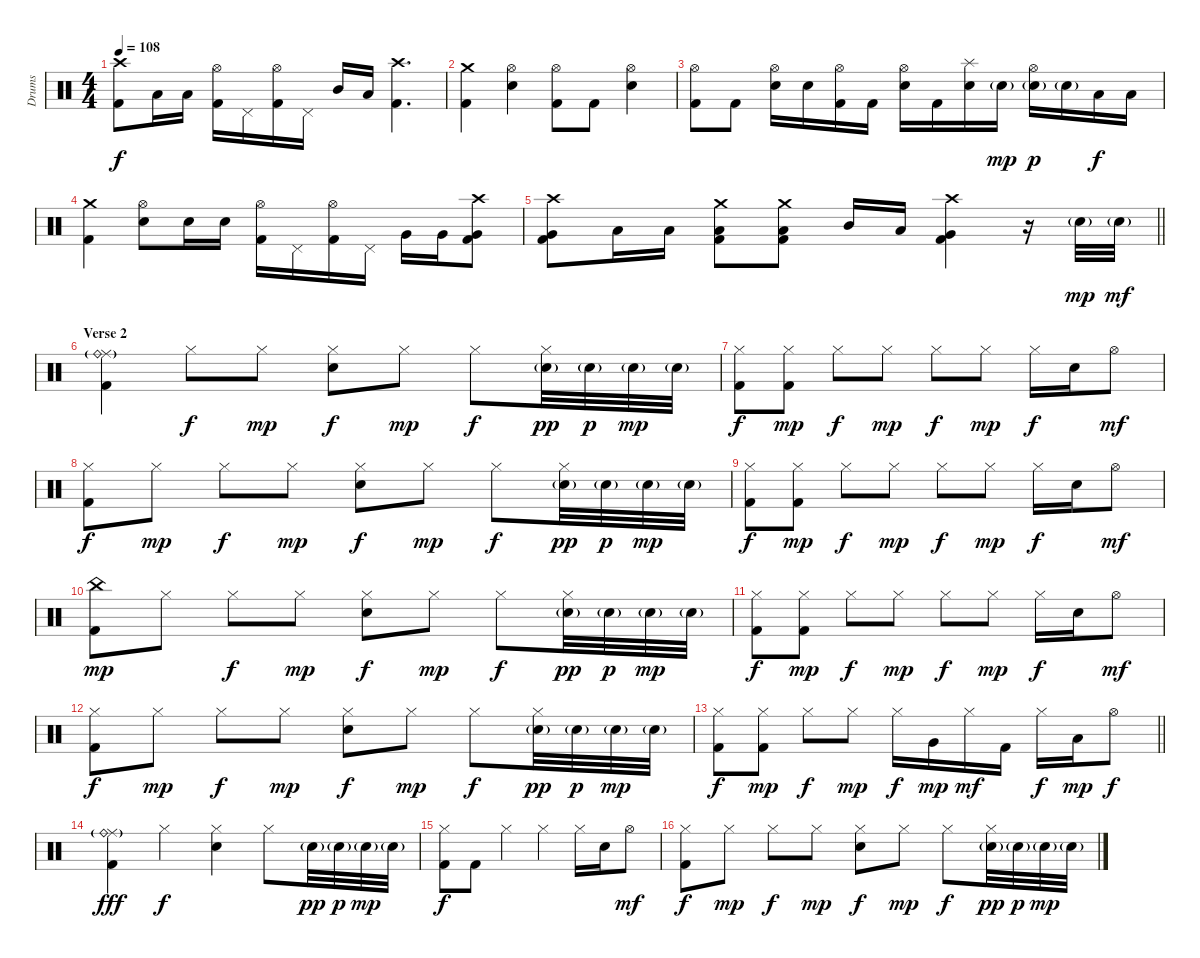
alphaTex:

\track ("Drums" "Drums") {instrument percussion}
\staff {score}
\articulation defaults
\ts (4 4)
\tempo 108
\clef neutral
\ks c
("Crash high (hit)" "Kick (hit) 2").8{dy f} "Low Tom (hit)".16 "Low Tom (hit)".16 ("Hi-Hat (open)" "Kick (hit) 2").16 "Pedal Hi-Hat (hit)".16 ("Hi-Hat (open)" "Kick (hit) 2").16 "Pedal Hi-Hat (hit)".16 "Mid Tom (hit)".16 "Low Tom (hit)".16 ("Crash high (hit)" "Kick (hit) 2").4{d} |
("Crash medium (hit)" "Kick (hit) 2").4 ("Hi-Hat (open)" "Electric Snare (hit)").4 ("Hi-Hat (open)" "Kick (hit) 2").8 "Kick (hit) 2".8 ("Hi-Hat (open)" "Electric Snare (hit)").4 |
("Hi-Hat (open)" "Kick (hit) 2").8 "Kick (hit) 2".8 ("Hi-Hat (open)" "Electric Snare (hit)").16 "Electric Snare (hit)".16 ("Hi-Hat (open)" "Kick (hit) 2").16 "Kick (hit) 2".16 ("Hi-Hat (open)" "Electric Snare (hit)").16 "Kick (hit) 2".16 ("Splash (hit)" "Electric Snare (hit)").16 "Electric Snare (hit)"{g}.16{dy mp} ("Hi-Hat (open)" "Electric Snare (hit)"{g}).16{dy p} "Electric Snare (hit)"{g}.16 "Low Tom (hit)".16{dy f} "Low Tom (hit)".16 |
("Crash medium (hit)" "Kick (hit) 2").4 ("Hi-Hat (open)" "Electric Snare (hit)").8 "Electric Snare (hit)".16 "Electric Snare (hit)".16 ("Hi-Hat (open)" "Kick (hit) 2").16 "Pedal Hi-Hat (hit)".16 ("Hi-Hat (open)" "Kick (hit) 2").16 "Pedal Hi-Hat (hit)".16 "Very Low Tom (hit)".16 "Very Low Tom (hit)".16 ("Crash high (hit)" "Very Low Tom (hit)" "Kick (hit) 2").8 |
\barLineRight lightlight
("Crash high (hit)" "Very Low Tom (hit)" "Kick (hit) 2").8 "Low Tom (hit)".16 "Low Tom (hit)".16 ("Crash medium (hit)" "Low Tom (hit)" "Kick (hit) 2").8 ("Crash medium (hit)" "Low Tom (hit)" "Kick (hit) 2").8 "Mid Tom (hit)".16 "Low Tom (hit)".16 ("Crash high (hit)" "Very Low Tom (hit)" "Kick (hit) 2").4 r.16 "Electric Snare (hit)"{g}.32{dy mp} "Electric Snare (hit)"{g}.32{dy mf} |
\section ("" "Verse 2")
("Ride (middle)" "Ride (bell)"{g} "Kick (hit) 2").4 "Hi-Hat (closed)".8{dy f} "Hi-Hat (closed)".8{dy mp} ("Hi-Hat (closed)" "Electric Snare (hit)").8{dy f} "Hi-Hat (closed)".8{dy mp} "Hi-Hat (closed)".8{dy f} ("Hi-Hat (closed)" "Electric Snare (hit)"{g}).32{dy pp} "Electric Snare (hit)"{g}.32{dy p} "Electric Snare (hit)"{g}.32{dy mp} "Electric Snare (hit)"{g}.32 |
("Hi-Hat (closed)" "Kick (hit) 2").8{dy f} ("Hi-Hat (closed)" "Kick (hit) 2").8{dy mp} "Hi-Hat (closed)".8{dy f} "Hi-Hat (closed)".8{dy mp} "Hi-Hat (closed)".8{dy f} "Hi-Hat (closed)".8{dy mp} "Hi-Hat (closed)".16{dy f} "Electric Snare (hit)".16 "Hi-Hat (open)".8{dy mf} |
("Hi-Hat (closed)" "Kick (hit) 2").8{dy f} "Hi-Hat (closed)".8{dy mp} "Hi-Hat (closed)".8{dy f} "Hi-Hat (closed)".8{dy mp} ("Hi-Hat (closed)" "Electric Snare (hit)").8{dy f} "Hi-Hat (closed)".8{dy mp} "Hi-Hat (closed)".8{dy f} ("Hi-Hat (closed)" "Electric Snare (hit)"{g}).32{dy pp} "Electric Snare (hit)"{g}.32{dy p} "Electric Snare (hit)"{g}.32{dy mp} "Electric Snare (hit)"{g}.32 |
("Hi-Hat (closed)" "Kick (hit) 2").8{dy f} ("Hi-Hat (closed)" "Kick (hit) 2").8{dy mp} "Hi-Hat (closed)".8{dy f} "Hi-Hat (closed)".8{dy mp} "Hi-Hat (closed)".8{dy f} "Hi-Hat (closed)".8{dy mp} "Hi-Hat (closed)".16{dy f} "Electric Snare (hit)".16 "Hi-Hat (open)".8{dy mf} |
("China (hit)" "Kick (hit) 2").8{dy mp} "Hi-Hat (closed)".8 "Hi-Hat (closed)".8{dy f} "Hi-Hat (closed)".8{dy mp} ("Hi-Hat (closed)" "Electric Snare (hit)").8{dy f} "Hi-Hat (closed)".8{dy mp} "Hi-Hat (closed)".8{dy f} ("Hi-Hat (closed)" "Electric Snare (hit)"{g}).32{dy pp} "Electric Snare (hit)"{g}.32{dy p} "Electric Snare (hit)"{g}.32{dy mp} "Electric Snare (hit)"{g}.32 |
("Hi-Hat (closed)" "Kick (hit) 2").8{dy f} ("Hi-Hat (closed)" "Kick (hit) 2").8{dy mp} "Hi-Hat (closed)".8{dy f} "Hi-Hat (closed)".8{dy mp} "Hi-Hat (closed)".8{dy f} "Hi-Hat (closed)".8{dy mp} "Hi-Hat (closed)".16{dy f} "Electric Snare (hit)".16 "Hi-Hat (open)".8{dy mf} |
("Hi-Hat (closed)" "Kick (hit) 2").8{dy f} "Hi-Hat (closed)".8{dy mp} "Hi-Hat (closed)".8{dy f} "Hi-Hat (closed)".8{dy mp} ("Hi-Hat (closed)" "Electric Snare (hit)").8{dy f} "Hi-Hat (closed)".8{dy mp} "Hi-Hat (closed)".8{dy f} ("Hi-Hat (closed)" "Electric Snare (hit)"{g}).32{dy pp} "Electric Snare (hit)"{g}.32{dy p} "Electric Snare (hit)"{g}.32{dy mp} "Electric Snare (hit)"{g}.32 |
\barLineRight lightlight
("Hi-Hat (closed)" "Kick (hit) 2").8{dy f} ("Hi-Hat (closed)" "Kick (hit) 2").8{dy mp} "Hi-Hat (closed)".8{dy f} "Hi-Hat (closed)".8{dy mp} "Hi-Hat (closed)".16{dy f} "Very Low Tom (hit)".16{dy mp} "Hi-Hat (closed)".16{dy mf} "Kick (hit) 2".16 "Hi-Hat (closed)".16{dy f} "Low Tom (hit)".16{dy mp} "Hi-Hat (open)".8{dy f} |
("Ride (middle)" "Ride (bell)"{g} "Kick (hit) 2").4{dy fff} "Hi-Hat (closed)".4{dy f} ("Hi-Hat (closed)" "Electric Snare (hit)").4 "Hi-Hat (closed)".8 "Electric Snare (hit)"{g}.32{dy pp} "Electric Snare (hit)"{g}.32{dy p} "Electric Snare (hit)"{g}.32{dy mp} "Electric Snare (hit)"{g}.32 |
("Hi-Hat (closed)" "Kick (hit) 2").8{dy f} "Kick (hit) 2".8 "Hi-Hat (closed)".4 "Hi-Hat (closed)".4 "Hi-Hat (closed)".16 "Electric Snare (hit)".16 "Hi-Hat (open)".8{dy mf} |
("Hi-Hat (closed)" "Kick (hit) 2").8{dy f} "Hi-Hat (closed)".8{dy mp} "Hi-Hat (closed)".8{dy f} "Hi-Hat (closed)".8{dy mp} ("Hi-Hat (closed)" "Electric Snare (hit)").8{dy f} "Hi-Hat (closed)".8{dy mp} "Hi-Hat (closed)".8{dy f} ("Hi-Hat (closed)" "Electric Snare (hit)"{g}).32{dy pp} "Electric Snare (hit)"{g}.32{dy p} "Electric Snare (hit)"{g}.32{dy mp} "Electric Snare (hit)"{g}.32
